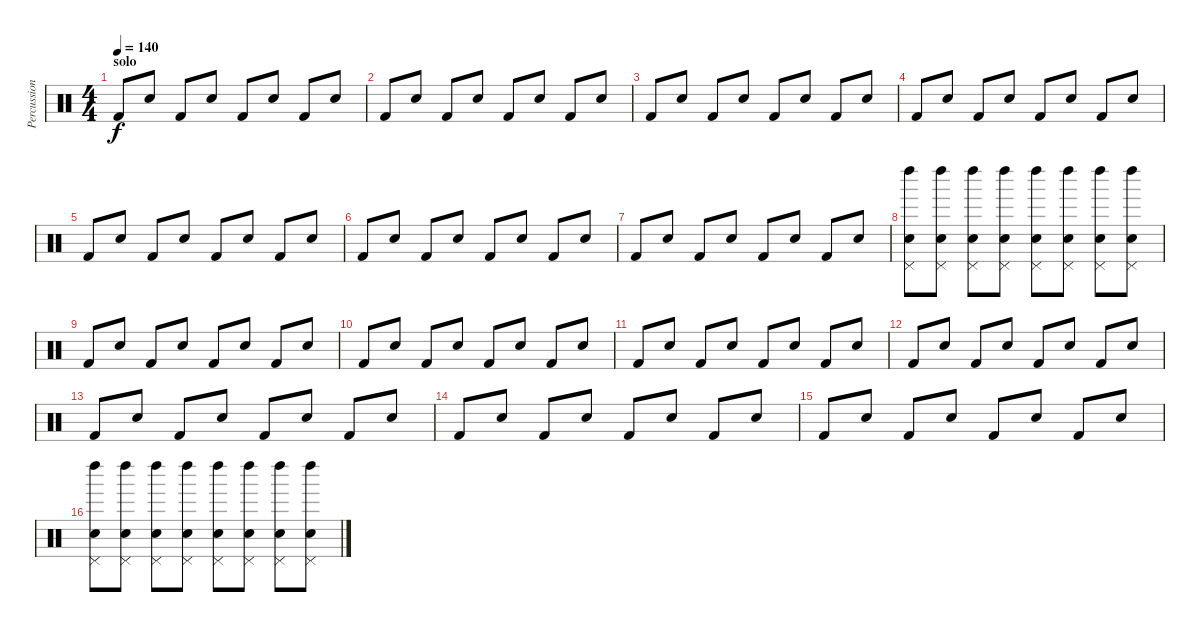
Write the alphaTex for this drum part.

\track ("Percussions" "Percussion") {instrument percussion}
\staff {score}
\articulation defaults
\ts (4 4)
\section ("" "solo")
\tempo 140
\clef neutral
\ks c "Kick (hit) 2".8{dy f} "Electric Snare (hit)".8 "Kick (hit) 2".8 "Electric Snare (hit)".8 "Kick (hit) 2".8 "Electric Snare (hit)".8 "Kick (hit) 2".8 "Electric Snare (hit)".8
|
"Kick (hit) 2".8 "Electric Snare (hit)".8 "Kick (hit) 2".8 "Electric Snare (hit)".8 "Kick (hit) 2".8 "Electric Snare (hit)".8 "Kick (hit) 2".8 "Electric Snare (hit)".8 |
"Kick (hit) 2".8 "Electric Snare (hit)".8 "Kick (hit) 2".8 "Electric Snare (hit)".8 "Kick (hit) 2".8 "Electric Snare (hit)".8 "Kick (hit) 2".8 "Electric Snare (hit)".8 |
"Kick (hit) 2".8 "Electric Snare (hit)".8 "Kick (hit) 2".8 "Electric Snare (hit)".8 "Kick (hit) 2".8 "Electric Snare (hit)".8 "Kick (hit) 2".8 "Electric Snare (hit)".8 |
"Kick (hit) 2".8 "Electric Snare (hit)".8 "Kick (hit) 2".8 "Electric Snare (hit)".8 "Kick (hit) 2".8 "Electric Snare (hit)".8 "Kick (hit) 2".8 "Electric Snare (hit)".8 |
"Kick (hit) 2".8 "Electric Snare (hit)".8 "Kick (hit) 2".8 "Electric Snare (hit)".8 "Kick (hit) 2".8 "Electric Snare (hit)".8 "Kick (hit) 2".8 "Electric Snare (hit)".8 |
"Kick (hit) 2".8 "Electric Snare (hit)".8 "Kick (hit) 2".8 "Electric Snare (hit)".8 "Kick (hit) 2".8 "Electric Snare (hit)".8 "Kick (hit) 2".8 "Electric Snare (hit)".8 |
("Pedal Hi-Hat (hit)" "Left Maraca (hit)" "Electric Snare (hit)").8 ("Pedal Hi-Hat (hit)" "Left Maraca (hit)" "Electric Snare (hit)").8 ("Pedal Hi-Hat (hit)" "Left Maraca (hit)" "Electric Snare (hit)").8 ("Pedal Hi-Hat (hit)" "Left Maraca (hit)" "Electric Snare (hit)").8 ("Pedal Hi-Hat (hit)" "Left Maraca (hit)" "Electric Snare (hit)").8 ("Pedal Hi-Hat (hit)" "Left Maraca (hit)" "Electric Snare (hit)").8 ("Pedal Hi-Hat (hit)" "Left Maraca (hit)" "Electric Snare (hit)").8 ("Pedal Hi-Hat (hit)" "Left Maraca (hit)" "Electric Snare (hit)").8 |
"Kick (hit) 2".8 "Electric Snare (hit)".8 "Kick (hit) 2".8 "Electric Snare (hit)".8 "Kick (hit) 2".8 "Electric Snare (hit)".8 "Kick (hit) 2".8 "Electric Snare (hit)".8 |
"Kick (hit) 2".8 "Electric Snare (hit)".8 "Kick (hit) 2".8 "Electric Snare (hit)".8 "Kick (hit) 2".8 "Electric Snare (hit)".8 "Kick (hit) 2".8 "Electric Snare (hit)".8 |
"Kick (hit) 2".8 "Electric Snare (hit)".8 "Kick (hit) 2".8 "Electric Snare (hit)".8 "Kick (hit) 2".8 "Electric Snare (hit)".8 "Kick (hit) 2".8 "Electric Snare (hit)".8 |
"Kick (hit) 2".8 "Electric Snare (hit)".8 "Kick (hit) 2".8 "Electric Snare (hit)".8 "Kick (hit) 2".8 "Electric Snare (hit)".8 "Kick (hit) 2".8 "Electric Snare (hit)".8 |
"Kick (hit) 2".8 "Electric Snare (hit)".8 "Kick (hit) 2".8 "Electric Snare (hit)".8 "Kick (hit) 2".8 "Electric Snare (hit)".8 "Kick (hit) 2".8 "Electric Snare (hit)".8 |
"Kick (hit) 2".8 "Electric Snare (hit)".8 "Kick (hit) 2".8 "Electric Snare (hit)".8 "Kick (hit) 2".8 "Electric Snare (hit)".8 "Kick (hit) 2".8 "Electric Snare (hit)".8 |
"Kick (hit) 2".8 "Electric Snare (hit)".8 "Kick (hit) 2".8 "Electric Snare (hit)".8 "Kick (hit) 2".8 "Electric Snare (hit)".8 "Kick (hit) 2".8 "Electric Snare (hit)".8 |
("Pedal Hi-Hat (hit)" "Left Maraca (hit)" "Electric Snare (hit)").8 ("Pedal Hi-Hat (hit)" "Left Maraca (hit)" "Electric Snare (hit)").8 ("Pedal Hi-Hat (hit)" "Left Maraca (hit)" "Electric Snare (hit)").8 ("Pedal Hi-Hat (hit)" "Left Maraca (hit)" "Electric Snare (hit)").8 ("Pedal Hi-Hat (hit)" "Left Maraca (hit)" "Electric Snare (hit)").8 ("Pedal Hi-Hat (hit)" "Left Maraca (hit)" "Electric Snare (hit)").8 ("Pedal Hi-Hat (hit)" "Left Maraca (hit)" "Electric Snare (hit)").8 ("Pedal Hi-Hat (hit)" "Left Maraca (hit)" "Electric Snare (hit)").8
